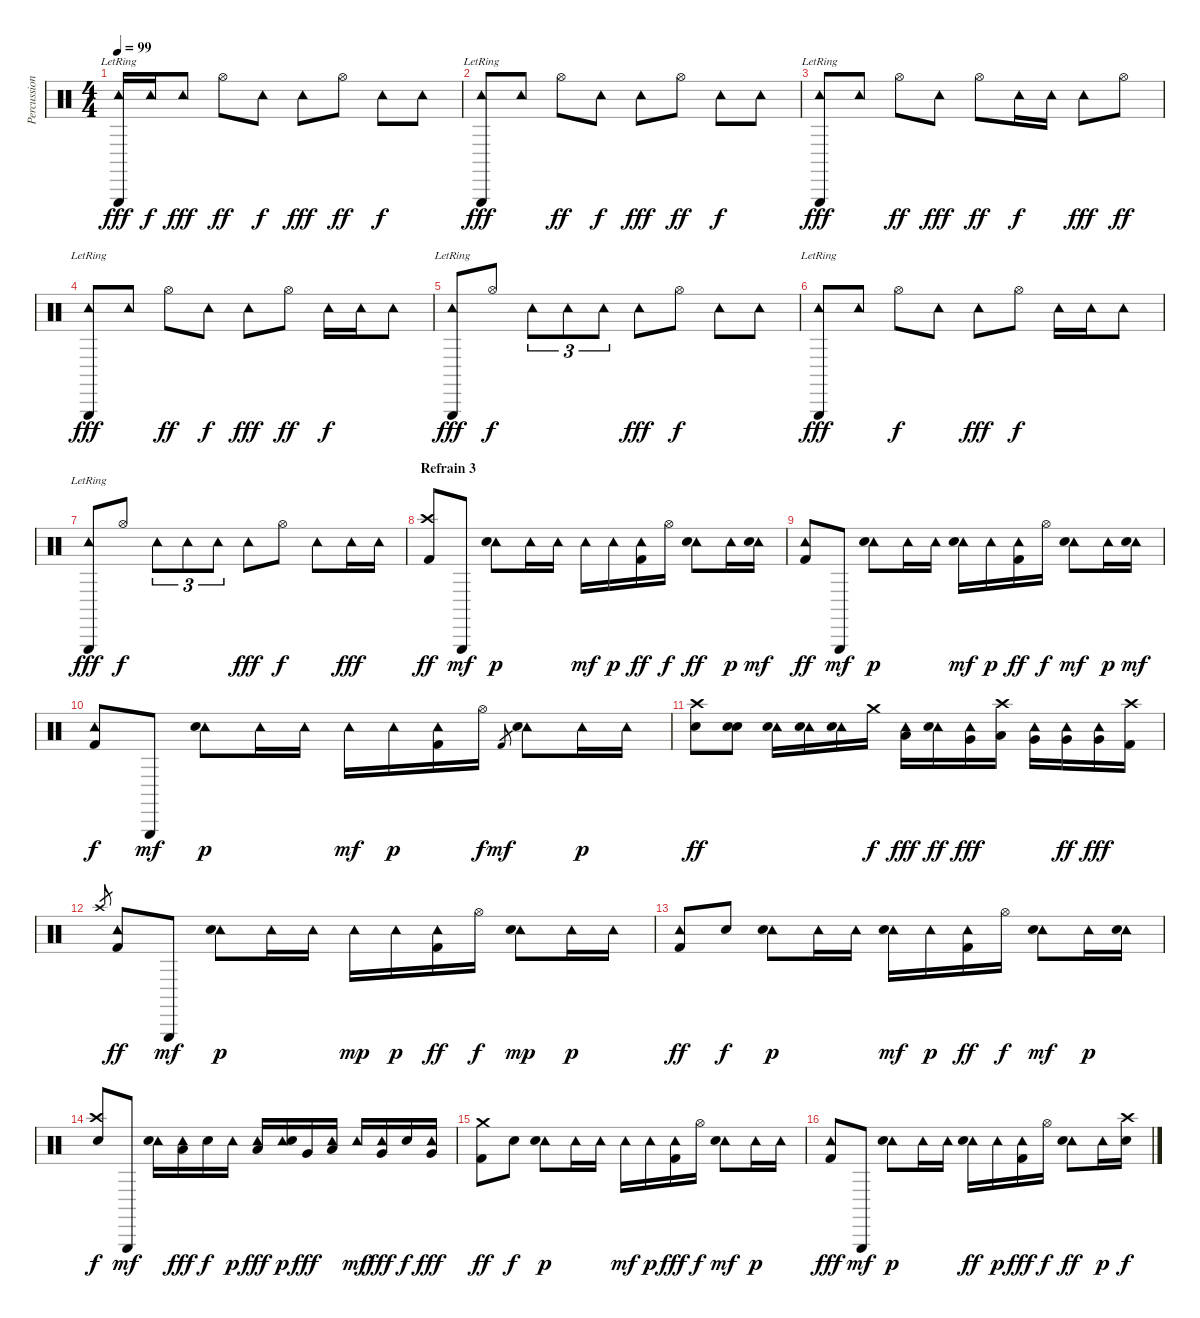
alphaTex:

\track ("Percussion" "Percussion") {instrument percussion}
\staff {score}
\articulation defaults
\ts (4 4)
\tempo 99
\clef neutral
\ks c
("Tambourine (hit)" "Triangle (hit)"{lr}).16{dy fff} "Tambourine (hit)".16{dy f} "Tambourine (hit)".8{dy fff} "Hi-Hat (open)".8{dy ff} "Tambourine (hit)".8{dy f} "Tambourine (hit)".8{dy fff} "Hi-Hat (open)".8{dy ff} "Tambourine (hit)".8{dy f} "Tambourine (hit)".8 |
("Tambourine (hit)" "Triangle (hit)"{lr}).8{dy fff} "Tambourine (hit)".8 "Hi-Hat (open)".8{dy ff} "Tambourine (hit)".8{dy f} "Tambourine (hit)".8{dy fff} "Hi-Hat (open)".8{dy ff} "Tambourine (hit)".8{dy f} "Tambourine (hit)".8 |
("Tambourine (hit)" "Triangle (hit)"{lr}).8{dy fff} "Tambourine (hit)".8 "Hi-Hat (open)".8{dy ff} "Tambourine (hit)".8{dy fff} "Hi-Hat (open)".8{dy ff} "Tambourine (hit)".16{dy f} "Tambourine (hit)".16 "Tambourine (hit)".8{dy fff} "Hi-Hat (open)".8{dy ff} |
("Tambourine (hit)" "Triangle (hit)"{lr}).8{dy fff} "Tambourine (hit)".8 "Hi-Hat (open)".8{dy ff} "Tambourine (hit)".8{dy f} "Tambourine (hit)".8{dy fff} "Hi-Hat (open)".8{dy ff} "Tambourine (hit)".16{dy f} "Tambourine (hit)".16 "Tambourine (hit)".8 |
("Tambourine (hit)" "Triangle (hit)"{lr}).8{dy fff} "Hi-Hat (open)".8{dy f} "Tambourine (hit)".8{tu (3 2)} "Tambourine (hit)".8{tu (3 2)} "Tambourine (hit)".8{tu (3 2)} "Tambourine (hit)".8{dy fff} "Hi-Hat (open)".8{dy f} "Tambourine (hit)".8 "Tambourine (hit)".8 |
("Tambourine (hit)" "Triangle (hit)"{lr}).8{dy fff} "Tambourine (hit)".8 "Hi-Hat (open)".8{dy f} "Tambourine (hit)".8 "Tambourine (hit)".8{dy fff} "Hi-Hat (open)".8{dy f} "Tambourine (hit)".16 "Tambourine (hit)".16 "Tambourine (hit)".8 |
("Tambourine (hit)" "Triangle (hit)"{lr}).8{dy fff} "Hi-Hat (open)".8{dy f} "Tambourine (hit)".8{tu (3 2)} "Tambourine (hit)".8{tu (3 2)} "Tambourine (hit)".8{tu (3 2)} "Tambourine (hit)".8{dy fff} "Hi-Hat (open)".8{dy f} "Tambourine (hit)".8 "Tambourine (hit)".16{dy fff} "Tambourine (hit)".16 |
\section ("" "Refrain 3")
("Crash high (hit)" "Kick (hit) 2").8{dy ff volume 9} "Triangle (hit)".8{dy mf} ("Tambourine (hit)" "Snare (hit) 2").8{dy p} "Tambourine (hit)".16 "Tambourine (hit)".16 "Tambourine (hit)".16{dy mf} "Tambourine (hit)".16{dy p} ("Tambourine (hit)" "Kick (hit) 2").16{dy ff} "Hi-Hat (open)".16{dy f} ("Tambourine (hit)" "Snare (hit) 2").8{dy ff} "Tambourine (hit)".16{dy p} ("Tambourine (hit)" "Electric Snare (hit)").16{dy mf} |
("Tambourine (hit)" "Kick (hit) 2").8{dy ff} "Triangle (hit)".8{dy mf} ("Tambourine (hit)" "Snare (hit) 2").8{dy p} "Tambourine (hit)".16 "Tambourine (hit)".16 ("Tambourine (hit)" "Snare (hit) 2").16{dy mf} "Tambourine (hit)".16{dy p} ("Tambourine (hit)" "Kick (hit) 2").16{dy ff} "Hi-Hat (open)".16{dy f} ("Tambourine (hit)" "Snare (hit) 2").8{dy mf} "Tambourine (hit)".16{dy p} ("Tambourine (hit)" "Electric Snare (hit)").16{dy mf} |
("Tambourine (hit)" "Kick (hit) 2").8{dy f} "Triangle (hit)".8{dy mf} ("Tambourine (hit)" "Snare (hit) 2").8{dy p} "Tambourine (hit)".16 "Tambourine (hit)".16 "Tambourine (hit)".16{dy mf} "Tambourine (hit)".16{dy p} ("Tambourine (hit)" "Kick (hit) 2").16 "Hi-Hat (open)".16{dy f} "Kick (hit) 2".8{gr dy mf} ("Tambourine (hit)" "Snare (hit) 2").8 "Tambourine (hit)".16{dy p} "Tambourine (hit)".16 |
("Crash high (hit)" "Snare (hit) 2").8{dy ff} ("Metronome (bell)" "Electric Snare (hit)").8 ("Tambourine (hit)" "Electric Snare (hit)").16 ("Tambourine (hit)" "Electric Snare (hit)").16 ("Tambourine (hit)" "Electric Snare (hit)").16 "Crash medium (hit)".16{dy f} ("Tambourine (hit)" "Low Tom (hit)").16{dy fff} ("Tambourine (hit)" "Electric Snare (hit)").16{dy ff} ("Tambourine (hit)" "Very Low Tom (hit)").16{dy fff} ("Crash high (hit)"{pm} "Low Tom (hit)").16 ("Tambourine (hit)" "Very Low Tom (hit)").16{volume 16} ("Tambourine (hit)" "Very Low Tom (hit)").16{dy ff} ("Tambourine (hit)" "Very Low Tom (hit)").16{dy fff} ("Crash high (hit)" "Kick (hit) 2").16 |
"Crash high (hit)".8{gr} ("Tambourine (hit)" "Kick (hit) 2").8{dy ff volume 9} "Triangle (hit)".8{dy mf} ("Tambourine (hit)" "Snare (hit) 2").8{dy p} "Tambourine (hit)".16 "Tambourine (hit)".16 "Tambourine (hit)".16{dy mp} "Tambourine (hit)".16{dy p} ("Tambourine (hit)" "Kick (hit) 2").16{dy ff} "Hi-Hat (open)".16{dy f} ("Tambourine (hit)" "Snare (hit) 2").8{dy mp} "Tambourine (hit)".16{dy p} "Tambourine (hit)".16 |
("Tambourine (hit)" "Kick (hit) 2").8{dy ff} "Metronome (bell)".8{dy f} ("Tambourine (hit)" "Snare (hit) 2").8{dy p} "Tambourine (hit)".16 "Tambourine (hit)".16 ("Tambourine (hit)" "Snare (hit) 2").16{dy mf} "Tambourine (hit)".16{dy p} ("Tambourine (hit)" "Kick (hit) 2").16{dy ff} "Hi-Hat (open)".16{dy f} ("Tambourine (hit)" "Snare (hit) 2").8{dy mf} "Tambourine (hit)".16{dy p} ("Tambourine (hit)" "Electric Snare (hit)").16 |
("Crash high (hit)" "Snare (hit) 2").8{dy f} "Triangle (hit)".8{dy mf} ("Tambourine (hit)" "Electric Snare (hit)").16 ("Tambourine (hit)" "Low Tom (hit)").16{dy fff} "Electric Snare (hit)".16{dy f} "Tambourine (hit)".16{dy p} ("Tambourine (hit)" "Low Tom (hit)").16{dy fff} ("Tambourine (hit)" "Electric Snare (hit)").16{dy p} "Very Low Tom (hit)".16{dy fff} ("Tambourine (hit)" "Low Tom (hit)").16 "Tambourine (hit)".16{dy mf} ("Tambourine (hit)" "Very Low Tom (hit)").16{dy fff} "Electric Snare (hit)".16{dy f} ("Tambourine (hit)" "Very Low Tom (hit)").16{dy fff} |
("Crash medium (hit)" "Kick (hit) 2").8{dy ff} "Metronome (bell)".8{dy f} ("Tambourine (hit)" "Snare (hit) 2").8{dy p} "Tambourine (hit)".16 "Tambourine (hit)".16 "Tambourine (hit)".16{dy mf} "Tambourine (hit)".16{dy p} ("Tambourine (hit)" "Kick (hit) 2").16{dy fff} "Hi-Hat (open)".16{dy f} ("Tambourine (hit)" "Snare (hit) 2").8{dy mf} "Tambourine (hit)".16{dy p} "Tambourine (hit)".16 |
("Tambourine (hit)" "Kick (hit) 2").8{dy fff} "Triangle (hit)".8{dy mf} ("Tambourine (hit)" "Snare (hit) 2").8{dy p} "Tambourine (hit)".16 "Tambourine (hit)".16 ("Tambourine (hit)" "Snare (hit) 2").16{dy ff} "Tambourine (hit)".16{dy p} ("Tambourine (hit)" "Kick (hit) 2").16{dy fff} "Hi-Hat (open)".16{dy f} ("Tambourine (hit)" "Snare (hit) 2").8{dy ff} "Tambourine (hit)".16{dy p} ("Crash high (hit)" "Snare (hit) 2").16{dy f}
